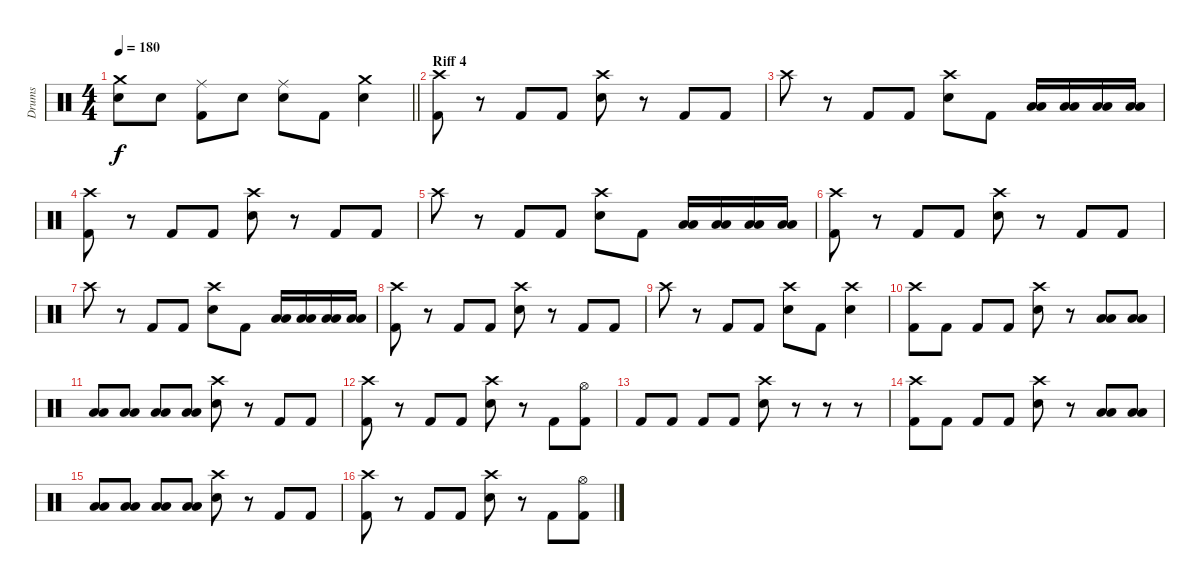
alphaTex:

\track ("Drums" "Drums") {instrument percussion}
\staff {score}
\articulation defaults
\ts (4 4)
\tempo 180
\clef neutral
\barLineRight lightlight
\ks c
("Crash medium (hit)" "Snare (hit) 2").8{dy f} "Snare (hit) 2".8 ("Ride (middle)" "Kick (hit) 2").8 "Snare (hit) 2".8 ("Ride (middle)" "Snare (hit) 2").8 "Kick (hit) 2".8 ("Crash medium (hit)" "Snare (hit) 2").4 |
\section ("" "Riff 4")
("Crash high (hit)" "Kick (hit) 2").8 r.8 "Kick (hit) 2".8 "Kick (hit) 2".8 ("Crash high (hit)" "Snare (hit) 2").8 r.8 "Kick (hit) 2".8 "Kick (hit) 2".8 |
"Crash high (hit)".8 r.8 "Kick (hit) 2".8 "Kick (hit) 2".8 ("Crash high (hit)" "Snare (hit) 2").8 "Kick (hit) 2".8 ("Low Tom (hit)" "Low Tom (hit)").16 ("Low Tom (hit)" "Low Tom (hit)").16 ("Low Floor Tom (hit)" "Low Floor Tom (hit)").16 ("Low Floor Tom (hit)" "Low Floor Tom (hit)").16 |
("Crash high (hit)" "Kick (hit) 2").8 r.8 "Kick (hit) 2".8 "Kick (hit) 2".8 ("Crash high (hit)" "Snare (hit) 2").8 r.8 "Kick (hit) 2".8 "Kick (hit) 2".8 |
"Crash high (hit)".8 r.8 "Kick (hit) 2".8 "Kick (hit) 2".8 ("Crash high (hit)" "Snare (hit) 2").8 "Kick (hit) 2".8 ("Low Tom (hit)" "Low Tom (hit)").16 ("Low Tom (hit)" "Low Tom (hit)").16 ("Low Floor Tom (hit)" "Low Floor Tom (hit)").16 ("Low Floor Tom (hit)" "Low Floor Tom (hit)").16 |
("Crash high (hit)" "Kick (hit) 2").8 r.8 "Kick (hit) 2".8 "Kick (hit) 2".8 ("Crash high (hit)" "Snare (hit) 2").8 r.8 "Kick (hit) 2".8 "Kick (hit) 2".8 |
"Crash high (hit)".8 r.8 "Kick (hit) 2".8 "Kick (hit) 2".8 ("Crash high (hit)" "Snare (hit) 2").8 "Kick (hit) 2".8 ("Low Tom (hit)" "Low Tom (hit)").16 ("Low Tom (hit)" "Low Tom (hit)").16 ("Low Floor Tom (hit)" "Low Floor Tom (hit)").16 ("Low Floor Tom (hit)" "Low Floor Tom (hit)").16 |
("Crash high (hit)" "Kick (hit) 2").8 r.8 "Kick (hit) 2".8 "Kick (hit) 2".8 ("Crash high (hit)" "Snare (hit) 2").8 r.8 "Kick (hit) 2".8 "Kick (hit) 2".8 |
"Crash high (hit)".8 r.8 "Kick (hit) 2".8 "Kick (hit) 2".8 ("Crash high (hit)" "Snare (hit) 2").8 "Kick (hit) 2".8 ("Crash high (hit)" "Snare (hit) 2").4 |
("Crash high (hit)" "Kick (hit) 2").8 "Kick (hit) 2".8 "Kick (hit) 2".8 "Kick (hit) 2".8 ("Crash high (hit)" "Snare (hit) 2").8 r.8 ("Low Tom (hit)" "Low Tom (hit)").8 ("Low Tom (hit)" "Low Tom (hit)").8 |
("Low Floor Tom (hit)" "Low Floor Tom (hit)").8 ("Low Floor Tom (hit)" "Low Floor Tom (hit)").8 ("Low Tom (hit)" "Low Tom (hit)").8 ("Low Tom (hit)" "Low Tom (hit)").8 ("Crash high (hit)" "Snare (hit) 2").8 r.8 "Kick (hit) 2".8 "Kick (hit) 2".8 |
("Crash high (hit)" "Kick (hit) 2").8 r.8 "Kick (hit) 2".8 "Kick (hit) 2".8 ("Crash high (hit)" "Snare (hit) 2").8 r.8 "Kick (hit) 2".8 ("Hi-Hat (open)" "Kick (hit) 2").8 |
"Kick (hit) 2".8 "Kick (hit) 2".8 "Kick (hit) 2".8 "Kick (hit) 2".8 ("Crash high (hit)" "Snare (hit) 2").8 r.8 r.8 r.8 |
("Crash high (hit)" "Kick (hit) 2").8 "Kick (hit) 2".8 "Kick (hit) 2".8 "Kick (hit) 2".8 ("Crash high (hit)" "Snare (hit) 2").8 r.8 ("Low Tom (hit)" "Low Tom (hit)").8 ("Low Tom (hit)" "Low Tom (hit)").8 |
("Low Floor Tom (hit)" "Low Floor Tom (hit)").8 ("Low Floor Tom (hit)" "Low Floor Tom (hit)").8 ("Low Tom (hit)" "Low Tom (hit)").8 ("Low Tom (hit)" "Low Tom (hit)").8 ("Crash high (hit)" "Snare (hit) 2").8 r.8 "Kick (hit) 2".8 "Kick (hit) 2".8 |
("Crash high (hit)" "Kick (hit) 2").8 r.8 "Kick (hit) 2".8 "Kick (hit) 2".8 ("Crash high (hit)" "Snare (hit) 2").8 r.8 "Kick (hit) 2".8 ("Hi-Hat (open)" "Kick (hit) 2").8
